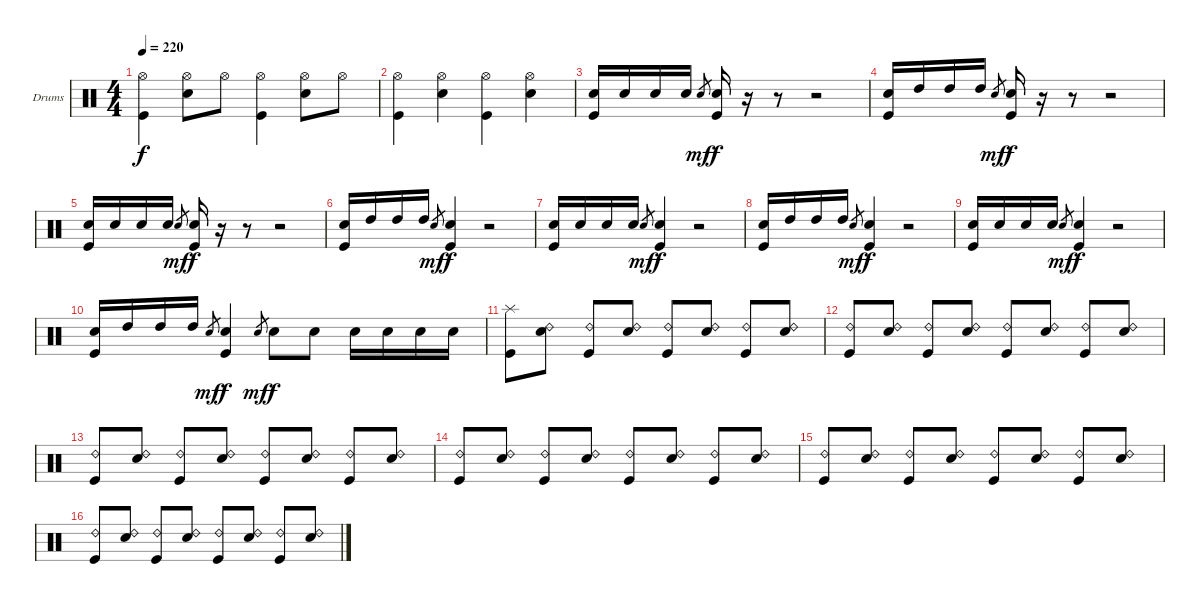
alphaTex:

\bracketExtendMode groupsimilarinstruments
\firstSystemTrackNameOrientation horizontal
\otherSystemsTrackNameOrientation horizontal
\track ("Dave Lombardo" "Drums") {instrument percussion}
\staff {score}
\articulation defaults
\ts (4 4)
\tempo 220
\clef neutral
\ks c
("Kick (hit)" "Hi-Hat (open)").4{dy f} ("Snare (hit) 2" "Hi-Hat (open)").8 "Hi-Hat (open)".8 ("Kick (hit)" "Hi-Hat (open)").4 ("Snare (hit) 2" "Hi-Hat (open)").8 "Hi-Hat (open)".8 |
("Kick (hit)" "Hi-Hat (open)").4 ("Snare (hit) 2" "Hi-Hat (open)").4 ("Kick (hit)" "Hi-Hat (open)").4 ("Snare (hit) 2" "Hi-Hat (open)").4 |
("Kick (hit)" "Snare (hit) 2").16 "Snare (hit) 2".16 "Snare (hit) 2".16 "Snare (hit) 2".16 "Snare (hit) 2".8{gr dy mf} ("Kick (hit)" "Snare (hit) 2").16{dy f} r.16 r.8 r.2 |
("Kick (hit)" "Snare (hit) 2").16 "High Tom (hit)".16 "High Tom (hit)".16 "High Tom (hit)".16 "Snare (hit) 2".8{gr dy mf} ("Kick (hit)" "Snare (hit) 2").16{dy f} r.16 r.8 r.2 |
("Kick (hit)" "Snare (hit) 2").16 "Snare (hit) 2".16 "Snare (hit) 2".16 "Snare (hit) 2".16 "Snare (hit) 2".8{gr dy mf} ("Kick (hit)" "Snare (hit) 2").16{dy f} r.16 r.8 r.2 |
("Kick (hit)" "Snare (hit) 2").16 "High Tom (hit)".16 "High Tom (hit)".16 "High Tom (hit)".16 "Snare (hit) 2".8{gr dy mf} ("Kick (hit)" "Snare (hit) 2").4{dy f} r.2 |
("Kick (hit)" "Snare (hit) 2").16 "Snare (hit) 2".16 "Snare (hit) 2".16 "Snare (hit) 2".16 "Snare (hit) 2".8{gr dy mf} ("Kick (hit)" "Snare (hit) 2").4{dy f} r.2 |
("Kick (hit)" "Snare (hit) 2").16 "High Tom (hit)".16 "High Tom (hit)".16 "High Tom (hit)".16 "Snare (hit) 2".8{gr dy mf} ("Kick (hit)" "Snare (hit) 2").4{dy f} r.2 |
("Kick (hit)" "Snare (hit) 2").16 "Snare (hit) 2".16 "Snare (hit) 2".16 "Snare (hit) 2".16 "Snare (hit) 2".8{gr dy mf} ("Kick (hit)" "Snare (hit) 2").4{dy f} r.2 |
("Kick (hit)" "Snare (hit) 2").16 "High Tom (hit)".16 "High Tom (hit)".16 "High Tom (hit)".16 "Snare (hit) 2".8{gr dy mf} ("Kick (hit)" "Snare (hit) 2").4{dy f} "Snare (hit) 2".8{gr dy mf} "Snare (hit) 2".8{dy f} "Snare (hit) 2".8 "Snare (hit) 2".16 "Snare (hit) 2".16 "Snare (hit) 2".16 "Snare (hit) 2".16 |
("Kick (hit)" "Splash (hit)").8 ("Snare (hit) 2" "Ride (bell) 2").8 ("Kick (hit)" "Ride (bell) 2").8 ("Snare (hit) 2" "Ride (bell) 2").8 ("Kick (hit)" "Ride (bell) 2").8 ("Snare (hit) 2" "Ride (bell) 2").8 ("Kick (hit)" "Ride (bell) 2").8 ("Snare (hit) 2" "Ride (bell) 2").8 |
("Kick (hit)" "Ride (bell) 2").8 ("Snare (hit) 2" "Ride (bell) 2").8 ("Kick (hit)" "Ride (bell) 2").8 ("Snare (hit) 2" "Ride (bell) 2").8 ("Kick (hit)" "Ride (bell) 2").8 ("Snare (hit) 2" "Ride (bell) 2").8 ("Kick (hit)" "Ride (bell) 2").8 ("Snare (hit) 2" "Ride (bell) 2").8 |
("Kick (hit)" "Ride (bell) 2").8 ("Snare (hit) 2" "Ride (bell) 2").8 ("Kick (hit)" "Ride (bell) 2").8 ("Snare (hit) 2" "Ride (bell) 2").8 ("Kick (hit)" "Ride (bell) 2").8 ("Snare (hit) 2" "Ride (bell) 2").8 ("Kick (hit)" "Ride (bell) 2").8 ("Snare (hit) 2" "Ride (bell) 2").8 |
("Kick (hit)" "Ride (bell) 2").8 ("Snare (hit) 2" "Ride (bell) 2").8 ("Kick (hit)" "Ride (bell) 2").8 ("Snare (hit) 2" "Ride (bell) 2").8 ("Kick (hit)" "Ride (bell) 2").8 ("Snare (hit) 2" "Ride (bell) 2").8 ("Kick (hit)" "Ride (bell) 2").8 ("Snare (hit) 2" "Ride (bell) 2").8 |
("Kick (hit)" "Ride (bell) 2").8 ("Snare (hit) 2" "Ride (bell) 2").8 ("Kick (hit)" "Ride (bell) 2").8 ("Snare (hit) 2" "Ride (bell) 2").8 ("Kick (hit)" "Ride (bell) 2").8 ("Snare (hit) 2" "Ride (bell) 2").8 ("Kick (hit)" "Ride (bell) 2").8 ("Snare (hit) 2" "Ride (bell) 2").8 |
("Kick (hit)" "Ride (bell) 2").8 ("Snare (hit) 2" "Ride (bell) 2").8 ("Kick (hit)" "Ride (bell) 2").8 ("Snare (hit) 2" "Ride (bell) 2").8 ("Kick (hit)" "Ride (bell) 2").8 ("Snare (hit) 2" "Ride (bell) 2").8 ("Kick (hit)" "Ride (bell) 2").8 ("Snare (hit) 2" "Ride (bell) 2").8
